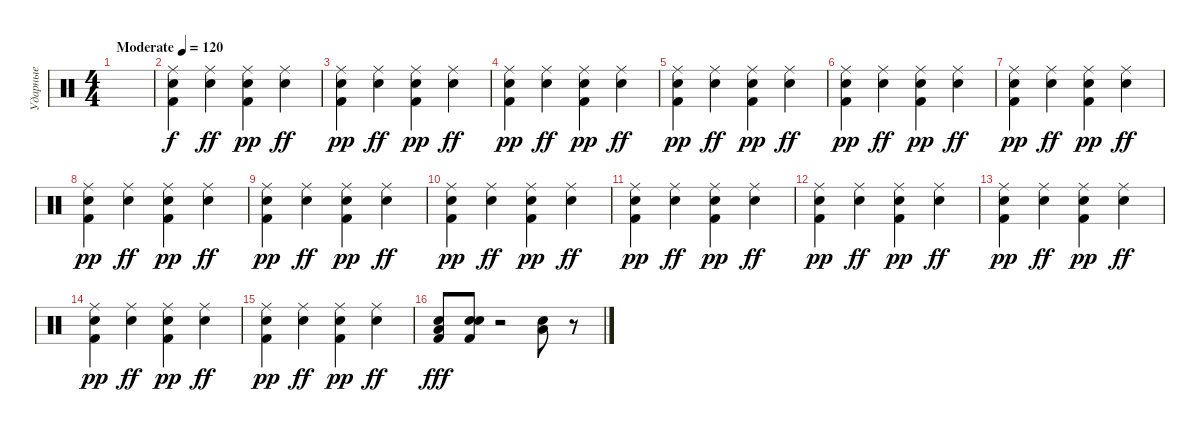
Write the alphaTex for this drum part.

\track ("Ударные" "Ударные") {instrument percussion}
\staff {score}
\articulation defaults
\ts (4 4)
\tempo (120 "Moderate")
\clef neutral
\ks c
|
("Ride (middle)" "Kick (hit) 2" "Snare (hit) 2").4 ("Ride (middle)" "Snare (hit) 2").4{dy ff} ("Ride (middle)" "Kick (hit) 2" "Snare (hit) 2").4{dy pp} ("Ride (middle)" "Snare (hit) 2").4{dy ff} |
("Ride (middle)" "Kick (hit) 2" "Snare (hit) 2").4{dy pp} ("Ride (middle)" "Snare (hit) 2").4{dy ff} ("Ride (middle)" "Kick (hit) 2" "Snare (hit) 2").4{dy pp} ("Ride (middle)" "Snare (hit) 2").4{dy ff} |
("Ride (middle)" "Kick (hit) 2" "Snare (hit) 2").4{dy pp} ("Ride (middle)" "Snare (hit) 2").4{dy ff} ("Ride (middle)" "Kick (hit) 2" "Snare (hit) 2").4{dy pp} ("Ride (middle)" "Snare (hit) 2").4{dy ff} |
("Ride (middle)" "Kick (hit) 2" "Snare (hit) 2").4{dy pp} ("Ride (middle)" "Snare (hit) 2").4{dy ff} ("Ride (middle)" "Kick (hit) 2" "Snare (hit) 2").4{dy pp} ("Ride (middle)" "Snare (hit) 2").4{dy ff} |
("Ride (middle)" "Kick (hit) 2" "Snare (hit) 2").4{dy pp} ("Ride (middle)" "Snare (hit) 2").4{dy ff} ("Ride (middle)" "Kick (hit) 2" "Snare (hit) 2").4{dy pp} ("Ride (middle)" "Snare (hit) 2").4{dy ff} |
("Ride (middle)" "Kick (hit) 2" "Snare (hit) 2").4{dy pp} ("Ride (middle)" "Snare (hit) 2").4{dy ff} ("Ride (middle)" "Kick (hit) 2" "Snare (hit) 2").4{dy pp} ("Ride (middle)" "Snare (hit) 2").4{dy ff} |
("Ride (middle)" "Kick (hit) 2" "Snare (hit) 2").4{dy pp} ("Ride (middle)" "Snare (hit) 2").4{dy ff} ("Ride (middle)" "Kick (hit) 2" "Snare (hit) 2").4{dy pp} ("Ride (middle)" "Snare (hit) 2").4{dy ff} |
("Ride (middle)" "Kick (hit) 2" "Snare (hit) 2").4{dy pp} ("Ride (middle)" "Snare (hit) 2").4{dy ff} ("Ride (middle)" "Kick (hit) 2" "Snare (hit) 2").4{dy pp} ("Ride (middle)" "Snare (hit) 2").4{dy ff} |
("Ride (middle)" "Kick (hit) 2" "Snare (hit) 2").4{dy pp} ("Ride (middle)" "Snare (hit) 2").4{dy ff} ("Ride (middle)" "Kick (hit) 2" "Snare (hit) 2").4{dy pp} ("Ride (middle)" "Snare (hit) 2").4{dy ff} |
("Ride (middle)" "Kick (hit) 2" "Snare (hit) 2").4{dy pp} ("Ride (middle)" "Snare (hit) 2").4{dy ff} ("Ride (middle)" "Kick (hit) 2" "Snare (hit) 2").4{dy pp} ("Ride (middle)" "Snare (hit) 2").4{dy ff} |
("Ride (middle)" "Kick (hit) 2" "Snare (hit) 2").4{dy pp} ("Ride (middle)" "Snare (hit) 2").4{dy ff} ("Ride (middle)" "Kick (hit) 2" "Snare (hit) 2").4{dy pp} ("Ride (middle)" "Snare (hit) 2").4{dy ff} |
("Ride (middle)" "Kick (hit) 2" "Snare (hit) 2").4{dy pp} ("Ride (middle)" "Snare (hit) 2").4{dy ff} ("Ride (middle)" "Kick (hit) 2" "Snare (hit) 2").4{dy pp} ("Ride (middle)" "Snare (hit) 2").4{dy ff} |
("Ride (middle)" "Kick (hit) 2" "Snare (hit) 2").4{dy pp} ("Ride (middle)" "Snare (hit) 2").4{dy ff} ("Ride (middle)" "Kick (hit) 2" "Snare (hit) 2").4{dy pp} ("Ride (middle)" "Snare (hit) 2").4{dy ff} |
("Ride (middle)" "Kick (hit) 2" "Snare (hit) 2").4{dy pp} ("Ride (middle)" "Snare (hit) 2").4{dy ff} ("Ride (middle)" "Kick (hit) 2" "Snare (hit) 2").4{dy pp} ("Ride (middle)" "Snare (hit) 2").4{dy ff} |
("Low Floor Tom (hit)" "Kick (hit) 2" "Snare (hit) 2").8{dy fff} ("Snare (hit)" "Kick (hit) 2" "Snare (hit) 2").8 r.2 ("Snare (hit) 2" "Low Floor Tom (hit)").8 r.8
